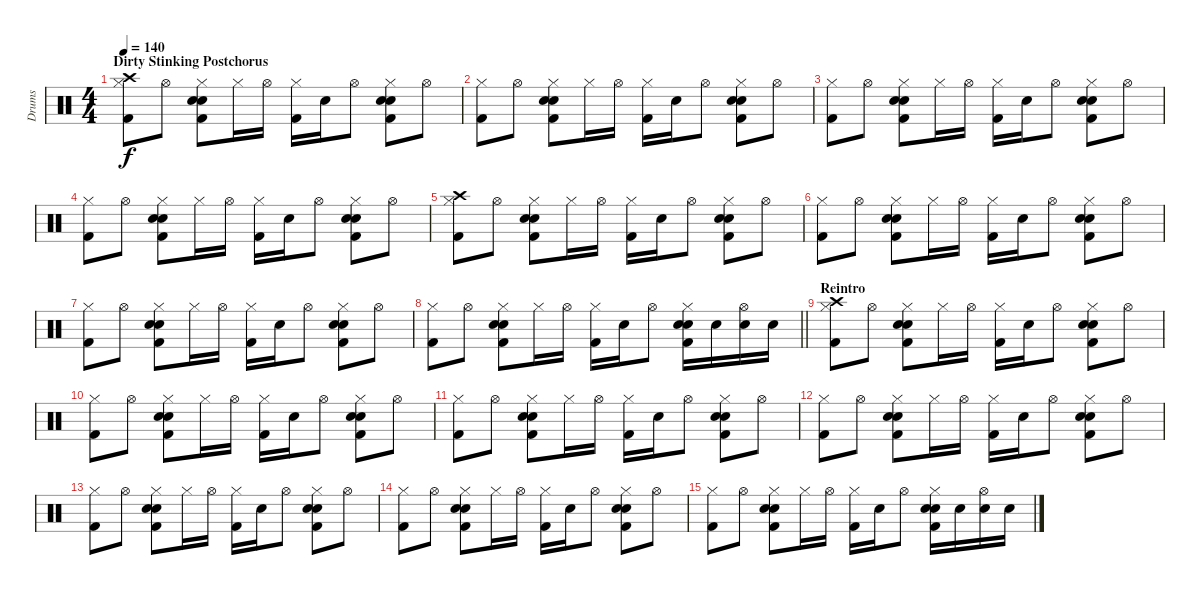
\track ("Drums" "Drums") {instrument percussion}
\staff {score}
\articulation defaults
\ts (4 4)
\section ("" "Dirty Stinking Postchorus")
\tempo 140
\clef neutral
\ks c
("Crash high (hit)" "Hi-Hat (closed)" "Kick (hit) 2").8{dy f} "Hi-Hat (open)".8 ("Hi-Hat (closed)" "Hand Clap (hit)" "Snare (hit) 2" "Kick (hit) 2").8 "Hi-Hat (closed)".16 "Hi-Hat (open)".16 ("Hi-Hat (closed)" "Kick (hit) 2").16 "Hand Clap (hit)".16 "Hi-Hat (open)".8 ("Hi-Hat (closed)" "Hand Clap (hit)" "Snare (hit) 2" "Kick (hit) 2").8 "Hi-Hat (open)".8 |
("Hi-Hat (closed)" "Kick (hit) 2").8 "Hi-Hat (open)".8 ("Hi-Hat (closed)" "Hand Clap (hit)" "Snare (hit) 2" "Kick (hit) 2").8 "Hi-Hat (closed)".16 "Hi-Hat (open)".16 ("Hi-Hat (closed)" "Kick (hit) 2").16 "Hand Clap (hit)".16 "Hi-Hat (open)".8 ("Hi-Hat (closed)" "Hand Clap (hit)" "Snare (hit) 2" "Kick (hit) 2").8 "Hi-Hat (open)".8 |
("Hi-Hat (closed)" "Kick (hit) 2").8 "Hi-Hat (open)".8 ("Hi-Hat (closed)" "Hand Clap (hit)" "Snare (hit) 2" "Kick (hit) 2").8 "Hi-Hat (closed)".16 "Hi-Hat (open)".16 ("Hi-Hat (closed)" "Kick (hit) 2").16 "Hand Clap (hit)".16 "Hi-Hat (open)".8 ("Hi-Hat (closed)" "Hand Clap (hit)" "Snare (hit) 2" "Kick (hit) 2").8 "Hi-Hat (open)".8 |
("Hi-Hat (closed)" "Kick (hit) 2").8 "Hi-Hat (open)".8 ("Hi-Hat (closed)" "Hand Clap (hit)" "Snare (hit) 2" "Kick (hit) 2").8 "Hi-Hat (closed)".16 "Hi-Hat (open)".16 ("Hi-Hat (closed)" "Kick (hit) 2").16 "Hand Clap (hit)".16 "Hi-Hat (open)".8 ("Hi-Hat (closed)" "Hand Clap (hit)" "Snare (hit) 2" "Kick (hit) 2").8 "Hi-Hat (open)".8 |
("Crash high (hit)" "Hi-Hat (closed)" "Kick (hit) 2").8 "Hi-Hat (open)".8 ("Hi-Hat (closed)" "Hand Clap (hit)" "Snare (hit) 2" "Kick (hit) 2").8 "Hi-Hat (closed)".16 "Hi-Hat (open)".16 ("Hi-Hat (closed)" "Kick (hit) 2").16 "Hand Clap (hit)".16 "Hi-Hat (open)".8 ("Hi-Hat (closed)" "Hand Clap (hit)" "Snare (hit) 2" "Kick (hit) 2").8 "Hi-Hat (open)".8 |
("Hi-Hat (closed)" "Kick (hit) 2").8 "Hi-Hat (open)".8 ("Hi-Hat (closed)" "Hand Clap (hit)" "Snare (hit) 2" "Kick (hit) 2").8 "Hi-Hat (closed)".16 "Hi-Hat (open)".16 ("Hi-Hat (closed)" "Kick (hit) 2").16 "Hand Clap (hit)".16 "Hi-Hat (open)".8 ("Hi-Hat (closed)" "Hand Clap (hit)" "Snare (hit) 2" "Kick (hit) 2").8 "Hi-Hat (open)".8 |
("Hi-Hat (closed)" "Kick (hit) 2").8 "Hi-Hat (open)".8 ("Hi-Hat (closed)" "Hand Clap (hit)" "Snare (hit) 2" "Kick (hit) 2").8 "Hi-Hat (closed)".16 "Hi-Hat (open)".16 ("Hi-Hat (closed)" "Kick (hit) 2").16 "Hand Clap (hit)".16 "Hi-Hat (open)".8 ("Hi-Hat (closed)" "Hand Clap (hit)" "Snare (hit) 2" "Kick (hit) 2").8 "Hi-Hat (open)".8 |
\barLineRight lightlight
("Hi-Hat (closed)" "Kick (hit) 2").8 "Hi-Hat (open)".8 ("Hi-Hat (closed)" "Hand Clap (hit)" "Snare (hit) 2" "Kick (hit) 2").8 "Hi-Hat (closed)".16 "Hi-Hat (open)".16 ("Hi-Hat (closed)" "Kick (hit) 2").16 "Hand Clap (hit)".16 "Hi-Hat (open)".8 ("Hi-Hat (closed)" "Hand Clap (hit)" "Snare (hit) 2" "Kick (hit) 2").16 "Snare (hit) 2".16 ("Hi-Hat (open)" "Snare (hit) 2").16 "Snare (hit) 2".16 |
\section ("" "Reintro")
("Crash high (hit)" "Hi-Hat (closed)" "Kick (hit) 2").8 "Hi-Hat (open)".8 ("Hi-Hat (closed)" "Hand Clap (hit)" "Snare (hit) 2" "Kick (hit) 2").8 "Hi-Hat (closed)".16 "Hi-Hat (open)".16 ("Hi-Hat (closed)" "Kick (hit) 2").16 "Hand Clap (hit)".16 "Hi-Hat (open)".8 ("Hi-Hat (closed)" "Hand Clap (hit)" "Snare (hit) 2" "Kick (hit) 2").8 "Hi-Hat (open)".8 |
("Hi-Hat (closed)" "Kick (hit) 2").8 "Hi-Hat (open)".8 ("Hi-Hat (closed)" "Hand Clap (hit)" "Snare (hit) 2" "Kick (hit) 2").8 "Hi-Hat (closed)".16 "Hi-Hat (open)".16 ("Hi-Hat (closed)" "Kick (hit) 2").16 "Hand Clap (hit)".16 "Hi-Hat (open)".8 ("Hi-Hat (closed)" "Hand Clap (hit)" "Snare (hit) 2" "Kick (hit) 2").8 "Hi-Hat (open)".8 |
("Hi-Hat (closed)" "Kick (hit) 2").8 "Hi-Hat (open)".8 ("Hi-Hat (closed)" "Hand Clap (hit)" "Snare (hit) 2" "Kick (hit) 2").8 "Hi-Hat (closed)".16 "Hi-Hat (open)".16 ("Hi-Hat (closed)" "Kick (hit) 2").16 "Hand Clap (hit)".16 "Hi-Hat (open)".8 ("Hi-Hat (closed)" "Hand Clap (hit)" "Snare (hit) 2" "Kick (hit) 2").8 "Hi-Hat (open)".8 |
("Hi-Hat (closed)" "Kick (hit) 2").8 "Hi-Hat (open)".8 ("Hi-Hat (closed)" "Hand Clap (hit)" "Snare (hit) 2" "Kick (hit) 2").8 "Hi-Hat (closed)".16 "Hi-Hat (open)".16 ("Hi-Hat (closed)" "Kick (hit) 2").16 "Hand Clap (hit)".16 "Hi-Hat (open)".8 ("Hi-Hat (closed)" "Hand Clap (hit)" "Snare (hit) 2" "Kick (hit) 2").8 "Hi-Hat (open)".8 |
("Hi-Hat (closed)" "Kick (hit) 2").8 "Hi-Hat (open)".8 ("Hi-Hat (closed)" "Hand Clap (hit)" "Snare (hit) 2" "Kick (hit) 2").8 "Hi-Hat (closed)".16 "Hi-Hat (open)".16 ("Hi-Hat (closed)" "Kick (hit) 2").16 "Hand Clap (hit)".16 "Hi-Hat (open)".8 ("Hi-Hat (closed)" "Hand Clap (hit)" "Snare (hit) 2" "Kick (hit) 2").8 "Hi-Hat (open)".8 |
("Hi-Hat (closed)" "Kick (hit) 2").8 "Hi-Hat (open)".8 ("Hi-Hat (closed)" "Hand Clap (hit)" "Snare (hit) 2" "Kick (hit) 2").8 "Hi-Hat (closed)".16 "Hi-Hat (open)".16 ("Hi-Hat (closed)" "Kick (hit) 2").16 "Hand Clap (hit)".16 "Hi-Hat (open)".8 ("Hi-Hat (closed)" "Hand Clap (hit)" "Snare (hit) 2" "Kick (hit) 2").8 "Hi-Hat (open)".8 |
("Hi-Hat (closed)" "Kick (hit) 2").8 "Hi-Hat (open)".8 ("Hi-Hat (closed)" "Hand Clap (hit)" "Snare (hit) 2" "Kick (hit) 2").8 "Hi-Hat (closed)".16 "Hi-Hat (open)".16 ("Hi-Hat (closed)" "Kick (hit) 2").16 "Hand Clap (hit)".16 "Hi-Hat (open)".8 ("Hi-Hat (closed)" "Hand Clap (hit)" "Snare (hit) 2" "Kick (hit) 2").16 "Snare (hit) 2".16 ("Hi-Hat (open)" "Snare (hit) 2").16 "Snare (hit) 2".16
